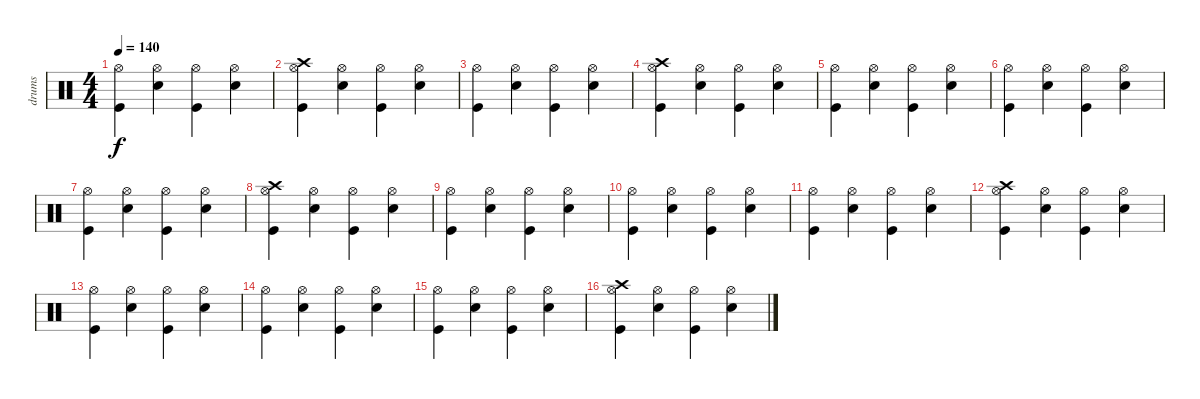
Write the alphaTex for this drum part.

\track ("drums" "drums") {instrument percussion}
\staff {score}
\articulation defaults
\ts (4 4)
\tempo 140
\clef neutral
\ks c
("Hi-Hat (open)" "Kick (hit)").4{dy f} ("Hi-Hat (open)" "Snare (hit) 2").4 ("Hi-Hat (open)" "Kick (hit)").4 ("Hi-Hat (open)" "Snare (hit) 2").4 |
("Hi-Hat (open)" "Kick (hit)" "Crash high (hit)").4 ("Hi-Hat (open)" "Snare (hit) 2").4 ("Hi-Hat (open)" "Kick (hit)").4 ("Hi-Hat (open)" "Snare (hit) 2").4 |
("Hi-Hat (open)" "Kick (hit)").4 ("Hi-Hat (open)" "Snare (hit) 2").4 ("Hi-Hat (open)" "Kick (hit)").4 ("Hi-Hat (open)" "Snare (hit) 2").4 |
("Hi-Hat (open)" "Kick (hit)" "Crash high (hit)").4 ("Hi-Hat (open)" "Snare (hit) 2").4 ("Hi-Hat (open)" "Kick (hit)").4 ("Hi-Hat (open)" "Snare (hit) 2").4 |
("Hi-Hat (open)" "Kick (hit)").4 ("Hi-Hat (open)" "Snare (hit) 2").4 ("Hi-Hat (open)" "Kick (hit)").4 ("Hi-Hat (open)" "Snare (hit) 2").4 |
("Hi-Hat (open)" "Kick (hit)").4 ("Hi-Hat (open)" "Snare (hit) 2").4 ("Hi-Hat (open)" "Kick (hit)").4 ("Hi-Hat (open)" "Snare (hit) 2").4 |
("Hi-Hat (open)" "Kick (hit)").4 ("Hi-Hat (open)" "Snare (hit) 2").4 ("Hi-Hat (open)" "Kick (hit)").4 ("Hi-Hat (open)" "Snare (hit) 2").4 |
("Hi-Hat (open)" "Kick (hit)" "Crash high (hit)").4 ("Hi-Hat (open)" "Snare (hit) 2").4 ("Hi-Hat (open)" "Kick (hit)").4 ("Hi-Hat (open)" "Snare (hit) 2").4 |
("Hi-Hat (open)" "Kick (hit)").4 ("Hi-Hat (open)" "Snare (hit) 2").4 ("Hi-Hat (open)" "Kick (hit)").4 ("Hi-Hat (open)" "Snare (hit) 2").4 |
("Hi-Hat (open)" "Kick (hit)").4 ("Hi-Hat (open)" "Snare (hit) 2").4 ("Hi-Hat (open)" "Kick (hit)").4 ("Hi-Hat (open)" "Snare (hit) 2").4 |
("Hi-Hat (open)" "Kick (hit)").4 ("Hi-Hat (open)" "Snare (hit) 2").4 ("Hi-Hat (open)" "Kick (hit)").4 ("Hi-Hat (open)" "Snare (hit) 2").4 |
("Hi-Hat (open)" "Kick (hit)" "Crash high (hit)").4 ("Hi-Hat (open)" "Snare (hit) 2").4 ("Hi-Hat (open)" "Kick (hit)").4 ("Hi-Hat (open)" "Snare (hit) 2").4 |
("Hi-Hat (open)" "Kick (hit)").4 ("Hi-Hat (open)" "Snare (hit) 2").4 ("Hi-Hat (open)" "Kick (hit)").4 ("Hi-Hat (open)" "Snare (hit) 2").4 |
("Hi-Hat (open)" "Kick (hit)").4 ("Hi-Hat (open)" "Snare (hit) 2").4 ("Hi-Hat (open)" "Kick (hit)").4 ("Hi-Hat (open)" "Snare (hit) 2").4 |
("Hi-Hat (open)" "Kick (hit)").4 ("Hi-Hat (open)" "Snare (hit) 2").4 ("Hi-Hat (open)" "Kick (hit)").4 ("Hi-Hat (open)" "Snare (hit) 2").4 |
("Hi-Hat (open)" "Kick (hit)" "Crash high (hit)").4 ("Hi-Hat (open)" "Snare (hit) 2").4 ("Hi-Hat (open)" "Kick (hit)").4 ("Hi-Hat (open)" "Snare (hit) 2").4
